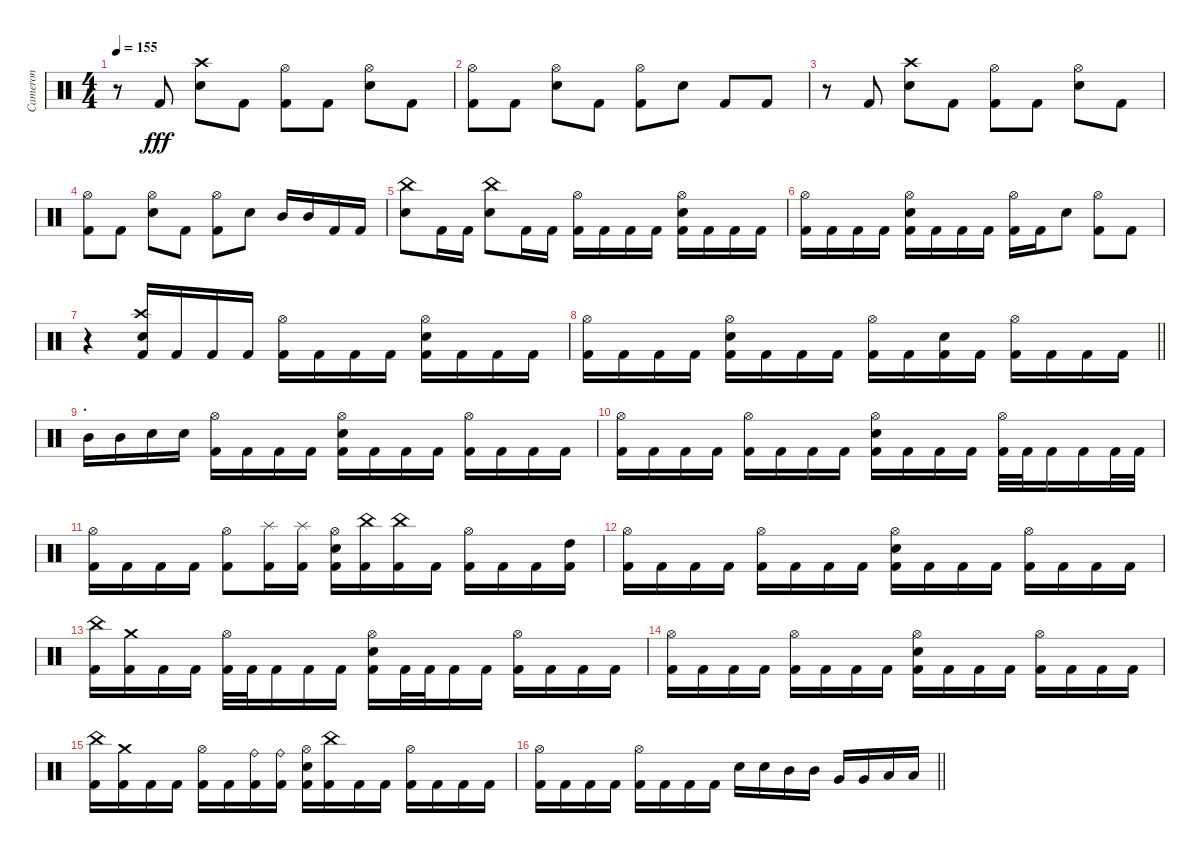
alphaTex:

\track ("Cameron" "Cameron") {instrument percussion}
\staff {score}
\articulation defaults
\ts (4 4)
\tempo 155
\clef neutral
\ks c
r.8{dy fff} "Kick (hit) 2".8 ("Crash high (hit)" "Electric Snare (hit)").8 "Kick (hit) 2".8 ("Hi-Hat (open)" "Kick (hit) 2").8 "Kick (hit) 2".8 ("Hi-Hat (open)" "Electric Snare (hit)").8 "Kick (hit) 2".8 |
("Hi-Hat (open)" "Kick (hit) 2").8 "Kick (hit) 2".8 ("Hi-Hat (open)" "Electric Snare (hit)").8 "Kick (hit) 2".8 ("Hi-Hat (open)" "Kick (hit) 2").8 "Electric Snare (hit)".8 "Kick (hit) 2".8 "Kick (hit) 2".8 |
r.8 "Kick (hit) 2".8 ("Crash high (hit)" "Electric Snare (hit)").8 "Kick (hit) 2".8 ("Hi-Hat (open)" "Kick (hit) 2").8 "Kick (hit) 2".8 ("Hi-Hat (open)" "Electric Snare (hit)").8 "Kick (hit) 2".8 |
("Hi-Hat (open)" "Kick (hit) 2").8 "Kick (hit) 2".8 ("Hi-Hat (open)" "Electric Snare (hit)").8 "Kick (hit) 2".8 ("Hi-Hat (open)" "Kick (hit) 2").8 "Electric Snare (hit)".8 "Mid Tom (hit)".16 "Mid Tom (hit)".16 "Kick (hit) 2".16 "Kick (hit) 2".16 |
("China (hit)" "Electric Snare (hit)").8 "Kick (hit) 2".16 "Kick (hit) 2".16 ("China (hit)" "Electric Snare (hit)").8 "Kick (hit) 2".16 "Kick (hit) 2".16 ("Hi-Hat (open)" "Kick (hit) 2").16 "Kick (hit) 2".16 "Kick (hit) 2".16 "Kick (hit) 2".16 ("Hi-Hat (open)" "Electric Snare (hit)" "Kick (hit) 2").16 "Kick (hit) 2".16 "Kick (hit) 2".16 "Kick (hit) 2".16 |
("Hi-Hat (open)" "Kick (hit) 2").16 "Kick (hit) 2".16 "Kick (hit) 2".16 "Kick (hit) 2".16 ("Hi-Hat (open)" "Electric Snare (hit)" "Kick (hit) 2").16 "Kick (hit) 2".16 "Kick (hit) 2".16 "Kick (hit) 2".16 ("Hi-Hat (open)" "Kick (hit) 2").16 "Kick (hit) 2".16 "Electric Snare (hit)".8 ("Hi-Hat (open)" "Kick (hit) 2").8 "Kick (hit) 2".8 |
r.4 ("Crash high (hit)" "Electric Snare (hit)" "Kick (hit) 2").16 "Kick (hit) 2".16 "Kick (hit) 2".16 "Kick (hit) 2".16 ("Hi-Hat (open)" "Kick (hit) 2").16 "Kick (hit) 2".16 "Kick (hit) 2".16 "Kick (hit) 2".16 ("Hi-Hat (open)" "Electric Snare (hit)" "Kick (hit) 2").16 "Kick (hit) 2".16 "Kick (hit) 2".16 "Kick (hit) 2".16 |
\barLineRight lightlight
("Hi-Hat (open)" "Kick (hit) 2").16 "Kick (hit) 2".16 "Kick (hit) 2".16 "Kick (hit) 2".16 ("Hi-Hat (open)" "Electric Snare (hit)" "Kick (hit) 2").16 "Kick (hit) 2".16 "Kick (hit) 2".16 "Kick (hit) 2".16 ("Hi-Hat (open)" "Kick (hit) 2").16 "Kick (hit) 2".16 ("Electric Snare (hit)" "Kick (hit) 2").16 "Kick (hit) 2".16 ("Hi-Hat (open)" "Kick (hit) 2").16 "Kick (hit) 2".16 "Kick (hit) 2".16 "Kick (hit) 2".16 |
\section ("" ".")
"Mid Tom (hit)".16 "Mid Tom (hit)".16 "Electric Snare (hit)".16 "Electric Snare (hit)".16 ("Hi-Hat (open)" "Kick (hit) 2").16 "Kick (hit) 2".16 "Kick (hit) 2".16 "Kick (hit) 2".16 ("Hi-Hat (open)" "Electric Snare (hit)" "Kick (hit) 2").16 "Kick (hit) 2".16 "Kick (hit) 2".16 "Kick (hit) 2".16 ("Hi-Hat (open)" "Kick (hit) 2").16 "Kick (hit) 2".16 "Kick (hit) 2".16 "Kick (hit) 2".16 |
("Hi-Hat (open)" "Kick (hit) 2").16 "Kick (hit) 2".16 "Kick (hit) 2".16 "Kick (hit) 2".16 ("Hi-Hat (open)" "Kick (hit) 2").16 "Kick (hit) 2".16 "Kick (hit) 2".16 "Kick (hit) 2".16 ("Hi-Hat (open)" "Electric Snare (hit)" "Kick (hit) 2").16 "Kick (hit) 2".16 "Kick (hit) 2".16 "Kick (hit) 2".16 ("Hi-Hat (open)" "Kick (hit) 2").32 "Kick (hit) 2".32 "Kick (hit) 2".16 "Kick (hit) 2".16 "Kick (hit) 2".32 "Kick (hit) 2".32 |
("Hi-Hat (open)" "Kick (hit) 2").16 "Kick (hit) 2".16 "Kick (hit) 2".16 "Kick (hit) 2".16 ("Hi-Hat (open)" "Kick (hit) 2").8 ("Splash (hit)" "Kick (hit) 2").16 ("Splash (hit)" "Kick (hit) 2").16 ("Hi-Hat (open)" "Electric Snare (hit)" "Kick (hit) 2").16 ("China (hit)" "Kick (hit) 2").16 ("China (hit)" "Kick (hit) 2").16 "Kick (hit) 2".16 ("Hi-Hat (open)" "Kick (hit) 2").16 "Kick (hit) 2".16 "Kick (hit) 2".16 ("High Tom (hit)" "Kick (hit) 2").16 |
("Hi-Hat (open)" "Kick (hit) 2").16 "Kick (hit) 2".16 "Kick (hit) 2".16 "Kick (hit) 2".16 ("Hi-Hat (open)" "Kick (hit) 2").16 "Kick (hit) 2".16 "Kick (hit) 2".16 "Kick (hit) 2".16 ("Hi-Hat (open)" "Electric Snare (hit)" "Kick (hit) 2").16 "Kick (hit) 2".16 "Kick (hit) 2".16 "Kick (hit) 2".16 ("Hi-Hat (open)" "Kick (hit) 2").16 "Kick (hit) 2".16 "Kick (hit) 2".16 "Kick (hit) 2".16 |
("China (hit)" "Kick (hit) 2").16 ("Crash medium (hit)" "Kick (hit) 2").16 "Kick (hit) 2".16 "Kick (hit) 2".16 ("Hi-Hat (open)" "Kick (hit) 2").32 "Kick (hit) 2".32 "Kick (hit) 2".16 "Kick (hit) 2".16 "Kick (hit) 2".16 ("Hi-Hat (open)" "Electric Snare (hit)" "Kick (hit) 2").16 "Kick (hit) 2".32 "Kick (hit) 2".32 "Kick (hit) 2".16 "Kick (hit) 2".16 ("Hi-Hat (open)" "Kick (hit) 2").16 "Kick (hit) 2".16 "Kick (hit) 2".16 "Kick (hit) 2".16 |
("Hi-Hat (open)" "Kick (hit) 2").16 "Kick (hit) 2".16 "Kick (hit) 2".16 "Kick (hit) 2".16 ("Hi-Hat (open)" "Kick (hit) 2").16 "Kick (hit) 2".16 "Kick (hit) 2".16 "Kick (hit) 2".16 ("Hi-Hat (open)" "Electric Snare (hit)" "Kick (hit) 2").16 "Kick (hit) 2".16 "Kick (hit) 2".16 "Kick (hit) 2".16 ("Hi-Hat (open)" "Kick (hit) 2").16 "Kick (hit) 2".16 "Kick (hit) 2".16 "Kick (hit) 2".16 |
("China (hit)" "Kick (hit) 2").16 ("Crash medium (hit)" "Kick (hit) 2").16 "Kick (hit) 2".16 "Kick (hit) 2".16 ("Hi-Hat (open)" "Kick (hit) 2").16 "Kick (hit) 2".16 ("Ride (bell)" "Kick (hit) 2").16 ("Ride (bell)" "Kick (hit) 2").16 ("Hi-Hat (open)" "Electric Snare (hit)" "Kick (hit) 2").16 ("China (hit)" "Kick (hit) 2").16 "Kick (hit) 2".16 "Kick (hit) 2".16 ("Hi-Hat (open)" "Kick (hit) 2").16 "Kick (hit) 2".16 "Kick (hit) 2".16 "Kick (hit) 2".16 |
\barLineRight lightlight
("Hi-Hat (open)" "Kick (hit) 2").16 "Kick (hit) 2".16 "Kick (hit) 2".16 "Kick (hit) 2".16 ("Hi-Hat (open)" "Kick (hit) 2").16 "Kick (hit) 2".16 "Kick (hit) 2".16 "Kick (hit) 2".16 "Electric Snare (hit)".16 "Electric Snare (hit)".16 "Mid Tom (hit)".16 "Mid Tom (hit)".16 "Very Low Tom (hit)".16 "Very Low Tom (hit)".16 "Low Floor Tom (hit)".16 "Low Floor Tom (hit)".16
